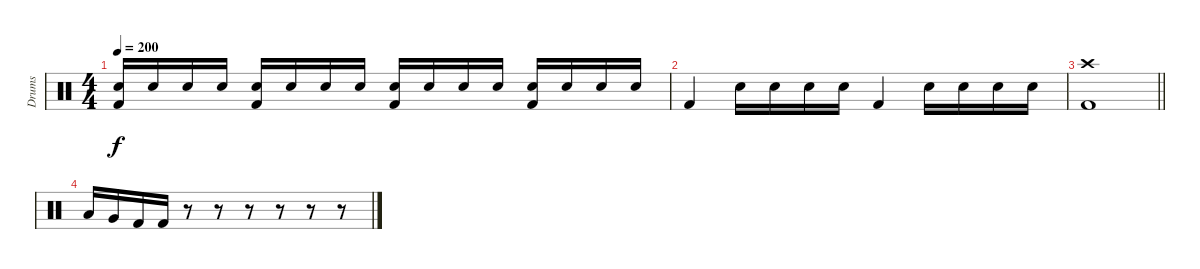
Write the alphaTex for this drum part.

\track ("Drums" "Drums") {instrument percussion}
\staff {score}
\articulation defaults
\ts (4 4)
\tempo 200
\clef neutral
\ks c
("Electric Snare (hit)" "Kick (hit) 2").16{dy f} "Electric Snare (hit)".16 "Electric Snare (hit)".16 "Electric Snare (hit)".16 ("Electric Snare (hit)" "Kick (hit) 2").16 "Electric Snare (hit)".16 "Electric Snare (hit)".16 "Electric Snare (hit)".16 ("Electric Snare (hit)" "Kick (hit) 2").16 "Electric Snare (hit)".16 "Electric Snare (hit)".16 "Electric Snare (hit)".16 ("Electric Snare (hit)" "Kick (hit) 2").16 "Electric Snare (hit)".16 "Electric Snare (hit)".16 "Electric Snare (hit)".16 |
"Kick (hit) 2".4 "Electric Snare (hit)".16 "Electric Snare (hit)".16 "Electric Snare (hit)".16 "Electric Snare (hit)".16 "Kick (hit) 2".4 "Electric Snare (hit)".16 "Electric Snare (hit)".16 "Electric Snare (hit)".16 "Electric Snare (hit)".16 |
\barLineRight lightlight
("Crash high (hit)" "Kick (hit) 2").1 |
"Low Tom (hit)".16 "Very Low Tom (hit)".16 "Kick (hit) 2".16 "Kick (hit) 2".16 r.8 r.8 r.8 r.8 r.8 r.8
